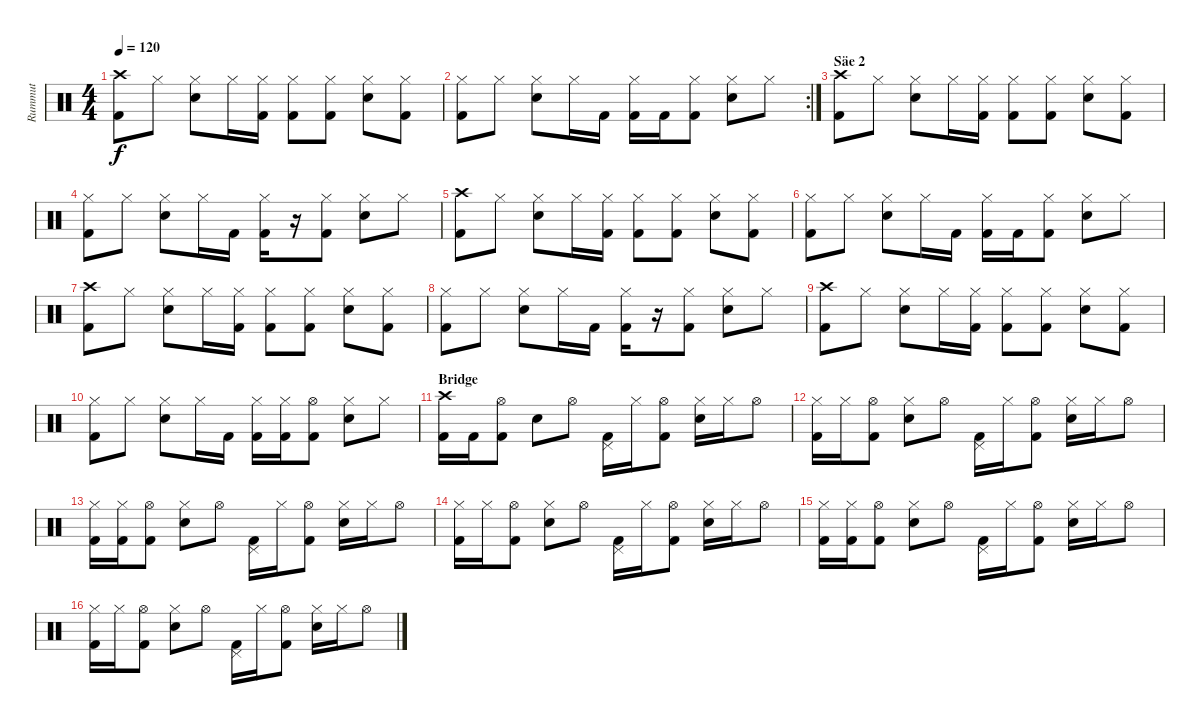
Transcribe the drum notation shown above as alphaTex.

\track ("Rummut" "Rummut") {instrument percussion}
\staff {score}
\articulation defaults
\ts (4 4)
\tempo 120
\clef neutral
\ks c
("Crash high (hit)" "Kick (hit) 2").8{dy f} "Hi-Hat (closed)".8 ("Hi-Hat (closed)" "Electric Snare (hit)").8 "Hi-Hat (closed)".16 ("Hi-Hat (closed)" "Kick (hit) 2").16 ("Hi-Hat (closed)" "Kick (hit) 2").8 ("Hi-Hat (closed)" "Kick (hit) 2").8 ("Hi-Hat (closed)" "Electric Snare (hit)").8 ("Hi-Hat (closed)" "Kick (hit) 2").8 |
\rc 2
("Hi-Hat (closed)" "Kick (hit) 2").8 "Hi-Hat (closed)".8 ("Hi-Hat (closed)" "Electric Snare (hit)").8 "Hi-Hat (closed)".16 "Kick (hit) 2".16 ("Hi-Hat (closed)" "Kick (hit) 2").16 "Kick (hit) 2".16 ("Hi-Hat (closed)" "Kick (hit) 2").8 ("Hi-Hat (closed)" "Electric Snare (hit)").8 "Hi-Hat (closed)".8 |
\section ("" "Säe 2")
("Crash high (hit)" "Kick (hit) 2").8 "Hi-Hat (closed)".8 ("Hi-Hat (closed)" "Electric Snare (hit)").8 "Hi-Hat (closed)".16 ("Hi-Hat (closed)" "Kick (hit) 2").16 ("Hi-Hat (closed)" "Kick (hit) 2").8 ("Hi-Hat (closed)" "Kick (hit) 2").8 ("Hi-Hat (closed)" "Electric Snare (hit)").8 ("Hi-Hat (closed)" "Kick (hit) 2").8 |
("Hi-Hat (closed)" "Kick (hit) 2").8 "Hi-Hat (closed)".8 ("Hi-Hat (closed)" "Electric Snare (hit)").8 "Hi-Hat (closed)".16 "Kick (hit) 2".16 ("Hi-Hat (closed)" "Kick (hit) 2").16 r.16 ("Hi-Hat (closed)" "Kick (hit) 2").8 ("Hi-Hat (closed)" "Electric Snare (hit)").8 "Hi-Hat (closed)".8 |
("Crash high (hit)" "Kick (hit) 2").8 "Hi-Hat (closed)".8 ("Hi-Hat (closed)" "Electric Snare (hit)").8 "Hi-Hat (closed)".16 ("Hi-Hat (closed)" "Kick (hit) 2").16 ("Hi-Hat (closed)" "Kick (hit) 2").8 ("Hi-Hat (closed)" "Kick (hit) 2").8 ("Hi-Hat (closed)" "Electric Snare (hit)").8 ("Hi-Hat (closed)" "Kick (hit) 2").8 |
("Hi-Hat (closed)" "Kick (hit) 2").8 "Hi-Hat (closed)".8 ("Hi-Hat (closed)" "Electric Snare (hit)").8 "Hi-Hat (closed)".16 "Kick (hit) 2".16 ("Hi-Hat (closed)" "Kick (hit) 2").16 "Kick (hit) 2".16 ("Hi-Hat (closed)" "Kick (hit) 2").8 ("Hi-Hat (closed)" "Electric Snare (hit)").8 "Hi-Hat (closed)".8 |
("Crash high (hit)" "Kick (hit) 2").8 "Hi-Hat (closed)".8 ("Hi-Hat (closed)" "Electric Snare (hit)").8 "Hi-Hat (closed)".16 ("Hi-Hat (closed)" "Kick (hit) 2").16 ("Hi-Hat (closed)" "Kick (hit) 2").8 ("Hi-Hat (closed)" "Kick (hit) 2").8 ("Hi-Hat (closed)" "Electric Snare (hit)").8 ("Hi-Hat (closed)" "Kick (hit) 2").8 |
("Hi-Hat (closed)" "Kick (hit) 2").8 "Hi-Hat (closed)".8 ("Hi-Hat (closed)" "Electric Snare (hit)").8 "Hi-Hat (closed)".16 "Kick (hit) 2".16 ("Hi-Hat (closed)" "Kick (hit) 2").16 r.16 ("Hi-Hat (closed)" "Kick (hit) 2").8 ("Hi-Hat (closed)" "Electric Snare (hit)").8 "Hi-Hat (closed)".8 |
("Crash high (hit)" "Kick (hit) 2").8 "Hi-Hat (closed)".8 ("Hi-Hat (closed)" "Electric Snare (hit)").8 "Hi-Hat (closed)".16 ("Hi-Hat (closed)" "Kick (hit) 2").16 ("Hi-Hat (closed)" "Kick (hit) 2").8 ("Hi-Hat (closed)" "Kick (hit) 2").8 ("Hi-Hat (closed)" "Electric Snare (hit)").8 ("Hi-Hat (closed)" "Kick (hit) 2").8 |
("Hi-Hat (closed)" "Kick (hit) 2").8 "Hi-Hat (closed)".8 ("Hi-Hat (closed)" "Electric Snare (hit)").8 "Hi-Hat (closed)".16 "Kick (hit) 2".16 ("Hi-Hat (closed)" "Kick (hit) 2").16 ("Hi-Hat (closed)" "Kick (hit) 2").16 ("Hi-Hat (open)" "Kick (hit) 2").8 ("Hi-Hat (closed)" "Electric Snare (hit)").8 "Hi-Hat (closed)".8 |
\section ("" "Bridge")
("Crash high (hit)" "Kick (hit) 2").16 "Kick (hit) 2".16 ("Hi-Hat (open)" "Kick (hit) 2").8 "Electric Snare (hit)".8 "Hi-Hat (open)".8 ("Pedal Hi-Hat (hit)" "Kick (hit) 2").16 "Hi-Hat (closed)".16 ("Hi-Hat (open)" "Kick (hit) 2").8 ("Hi-Hat (closed)" "Electric Snare (hit)").16 "Hi-Hat (closed)".16 "Hi-Hat (open)".8 |
("Hi-Hat (closed)" "Kick (hit) 2").16 "Hi-Hat (closed)".16 ("Hi-Hat (open)" "Kick (hit) 2").8 ("Hi-Hat (closed)" "Electric Snare (hit)").8 "Hi-Hat (open)".8 ("Pedal Hi-Hat (hit)" "Kick (hit) 2").16 "Hi-Hat (closed)".16 ("Hi-Hat (open)" "Kick (hit) 2").8 ("Hi-Hat (closed)" "Electric Snare (hit)").16 "Hi-Hat (closed)".16 "Hi-Hat (open)".8 |
("Hi-Hat (closed)" "Kick (hit) 2").16 ("Hi-Hat (closed)" "Kick (hit) 2").16 ("Hi-Hat (open)" "Kick (hit) 2").8 ("Hi-Hat (closed)" "Electric Snare (hit)").8 "Hi-Hat (open)".8 ("Pedal Hi-Hat (hit)" "Kick (hit) 2").16 "Hi-Hat (closed)".16 ("Hi-Hat (open)" "Kick (hit) 2").8 ("Hi-Hat (closed)" "Electric Snare (hit)").16 "Hi-Hat (closed)".16 "Hi-Hat (open)".8 |
("Hi-Hat (closed)" "Kick (hit) 2").16 "Hi-Hat (closed)".16 ("Hi-Hat (open)" "Kick (hit) 2").8 ("Hi-Hat (closed)" "Electric Snare (hit)").8 "Hi-Hat (open)".8 ("Pedal Hi-Hat (hit)" "Kick (hit) 2").16 "Hi-Hat (closed)".16 ("Hi-Hat (open)" "Kick (hit) 2").8 ("Hi-Hat (closed)" "Electric Snare (hit)").16 "Hi-Hat (closed)".16 "Hi-Hat (open)".8 |
("Hi-Hat (closed)" "Kick (hit) 2").16 ("Hi-Hat (closed)" "Kick (hit) 2").16 ("Hi-Hat (open)" "Kick (hit) 2").8 ("Hi-Hat (closed)" "Electric Snare (hit)").8 "Hi-Hat (open)".8 ("Pedal Hi-Hat (hit)" "Kick (hit) 2").16 "Hi-Hat (closed)".16 ("Hi-Hat (open)" "Kick (hit) 2").8 ("Hi-Hat (closed)" "Electric Snare (hit)").16 "Hi-Hat (closed)".16 "Hi-Hat (open)".8 |
("Hi-Hat (closed)" "Kick (hit) 2").16 "Hi-Hat (closed)".16 ("Hi-Hat (open)" "Kick (hit) 2").8 ("Hi-Hat (closed)" "Electric Snare (hit)").8 "Hi-Hat (open)".8 ("Pedal Hi-Hat (hit)" "Kick (hit) 2").16 "Hi-Hat (closed)".16 ("Hi-Hat (open)" "Kick (hit) 2").8 ("Hi-Hat (closed)" "Electric Snare (hit)").16 "Hi-Hat (closed)".16 "Hi-Hat (open)".8
